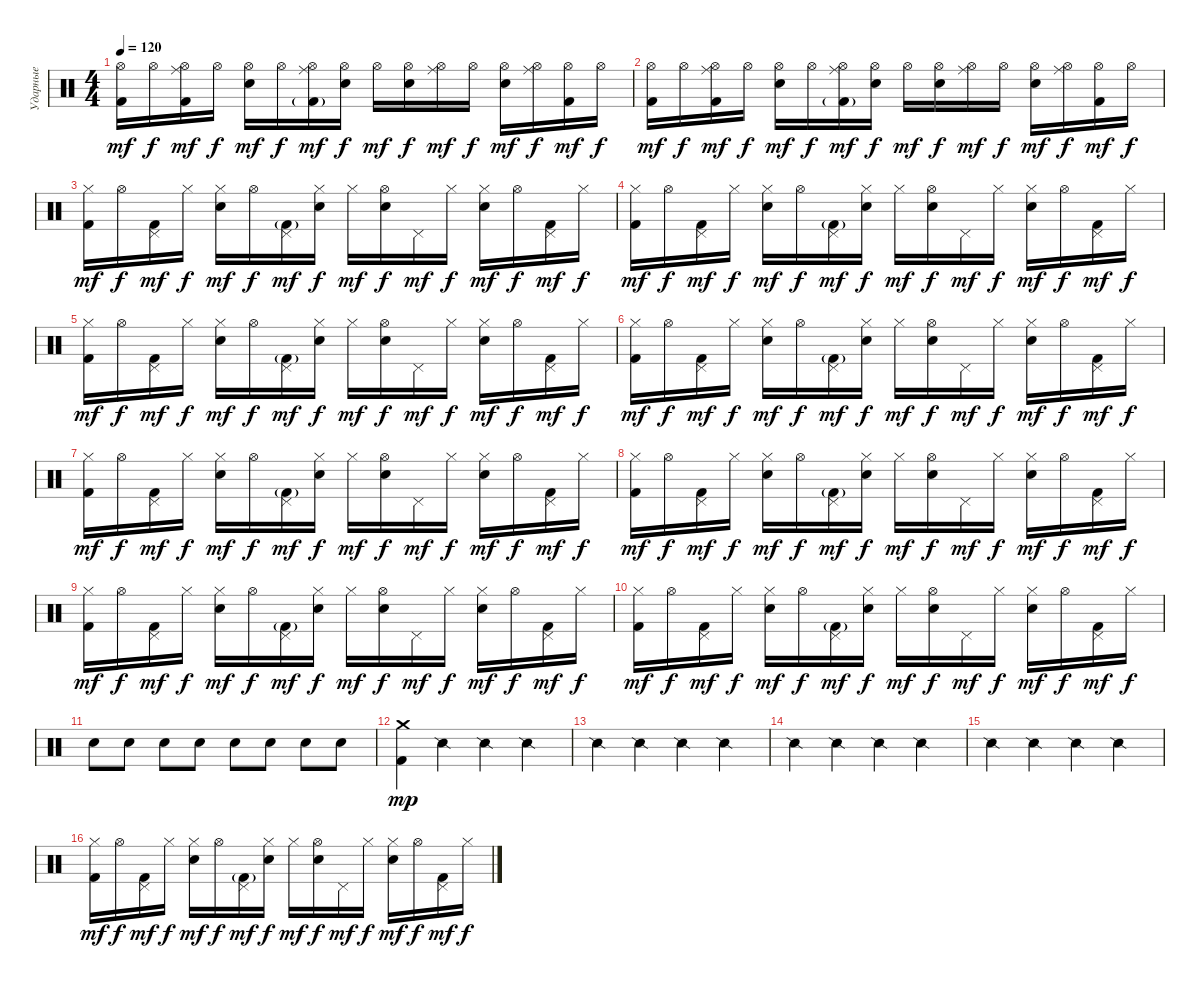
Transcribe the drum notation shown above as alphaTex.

\track ("Ударные" "Ударные") {instrument percussion}
\staff {score}
\articulation defaults
\ts (4 4)
\tempo 120
\clef neutral
\ks c
("Kick (hit) 2" "Hi-Hat (open)").16{dy mf} "Hi-Hat (open)".16{dy f} ("Kick (hit) 2" "Hi-Hat (open)" "Ride (middle)").16{dy mf} "Hi-Hat (open)".16{dy f} ("Snare (hit) 2" "Hi-Hat (open)").16{dy mf} "Hi-Hat (open)".16{dy f} ("Kick (hit) 2"{g} "Hi-Hat (open)" "Ride (middle)").16{dy mf} ("Snare (hit) 2" "Hi-Hat (open)").16{dy f} "Hi-Hat (open)".16{dy mf} ("Snare (hit) 2" "Hi-Hat (open)").16{dy f} ("Hi-Hat (open)" "Ride (middle)").16{dy mf} "Hi-Hat (open)".16{dy f} ("Snare (hit) 2" "Hi-Hat (open)").16{dy mf} ("Hi-Hat (open)" "Ride (middle)").16{dy f} ("Kick (hit) 2" "Hi-Hat (open)").16{dy mf} "Hi-Hat (open)".16{dy f} |
("Kick (hit) 2" "Hi-Hat (open)").16{dy mf} "Hi-Hat (open)".16{dy f} ("Kick (hit) 2" "Hi-Hat (open)" "Ride (middle)").16{dy mf} "Hi-Hat (open)".16{dy f} ("Snare (hit) 2" "Hi-Hat (open)").16{dy mf} "Hi-Hat (open)".16{dy f} ("Kick (hit) 2"{g} "Hi-Hat (open)" "Ride (middle)").16{dy mf} ("Snare (hit) 2" "Hi-Hat (open)").16{dy f} "Hi-Hat (open)".16{dy mf} ("Snare (hit) 2" "Hi-Hat (open)").16{dy f} ("Hi-Hat (open)" "Ride (middle)").16{dy mf} "Hi-Hat (open)".16{dy f} ("Snare (hit) 2" "Hi-Hat (open)").16{dy mf} ("Hi-Hat (open)" "Ride (middle)").16{dy f} ("Kick (hit) 2" "Hi-Hat (open)").16{dy mf} "Hi-Hat (open)".16{dy f} |
("Kick (hit) 2" "Hi-Hat (closed)").16{dy mf} "Hi-Hat (open)".16{dy f} ("Kick (hit) 2" "Pedal Hi-Hat (hit)").16{dy mf} "Hi-Hat (closed)".16{dy f} ("Snare (hit) 2" "Hi-Hat (closed)").16{dy mf} "Hi-Hat (open)".16{dy f} ("Kick (hit) 2"{g} "Pedal Hi-Hat (hit)").16{dy mf} ("Snare (hit) 2" "Hi-Hat (closed)").16{dy f} "Hi-Hat (closed)".16{dy mf} ("Snare (hit) 2" "Hi-Hat (open)").16{dy f} "Pedal Hi-Hat (hit)".16{dy mf} "Hi-Hat (closed)".16{dy f} ("Snare (hit) 2" "Hi-Hat (closed)").16{dy mf} "Hi-Hat (open)".16{dy f} ("Kick (hit) 2" "Pedal Hi-Hat (hit)").16{dy mf} "Hi-Hat (closed)".16{dy f} |
("Kick (hit) 2" "Hi-Hat (closed)").16{dy mf} "Hi-Hat (open)".16{dy f} ("Kick (hit) 2" "Pedal Hi-Hat (hit)").16{dy mf} "Hi-Hat (closed)".16{dy f} ("Snare (hit) 2" "Hi-Hat (closed)").16{dy mf} "Hi-Hat (open)".16{dy f} ("Kick (hit) 2"{g} "Pedal Hi-Hat (hit)").16{dy mf} ("Snare (hit) 2" "Hi-Hat (closed)").16{dy f} "Hi-Hat (closed)".16{dy mf} ("Snare (hit) 2" "Hi-Hat (open)").16{dy f} "Pedal Hi-Hat (hit)".16{dy mf} "Hi-Hat (closed)".16{dy f} ("Snare (hit) 2" "Hi-Hat (closed)").16{dy mf} "Hi-Hat (open)".16{dy f} ("Kick (hit) 2" "Pedal Hi-Hat (hit)").16{dy mf} "Hi-Hat (closed)".16{dy f} |
("Kick (hit) 2" "Hi-Hat (closed)").16{dy mf} "Hi-Hat (open)".16{dy f} ("Kick (hit) 2" "Pedal Hi-Hat (hit)").16{dy mf} "Hi-Hat (closed)".16{dy f} ("Snare (hit) 2" "Hi-Hat (closed)").16{dy mf} "Hi-Hat (open)".16{dy f} ("Kick (hit) 2"{g} "Pedal Hi-Hat (hit)").16{dy mf} ("Snare (hit) 2" "Hi-Hat (closed)").16{dy f} "Hi-Hat (closed)".16{dy mf} ("Snare (hit) 2" "Hi-Hat (open)").16{dy f} "Pedal Hi-Hat (hit)".16{dy mf} "Hi-Hat (closed)".16{dy f} ("Snare (hit) 2" "Hi-Hat (closed)").16{dy mf} "Hi-Hat (open)".16{dy f} ("Kick (hit) 2" "Pedal Hi-Hat (hit)").16{dy mf} "Hi-Hat (closed)".16{dy f} |
("Kick (hit) 2" "Hi-Hat (closed)").16{dy mf} "Hi-Hat (open)".16{dy f} ("Kick (hit) 2" "Pedal Hi-Hat (hit)").16{dy mf} "Hi-Hat (closed)".16{dy f} ("Snare (hit) 2" "Hi-Hat (closed)").16{dy mf} "Hi-Hat (open)".16{dy f} ("Kick (hit) 2"{g} "Pedal Hi-Hat (hit)").16{dy mf} ("Snare (hit) 2" "Hi-Hat (closed)").16{dy f} "Hi-Hat (closed)".16{dy mf} ("Snare (hit) 2" "Hi-Hat (open)").16{dy f} "Pedal Hi-Hat (hit)".16{dy mf} "Hi-Hat (closed)".16{dy f} ("Snare (hit) 2" "Hi-Hat (closed)").16{dy mf} "Hi-Hat (open)".16{dy f} ("Kick (hit) 2" "Pedal Hi-Hat (hit)").16{dy mf} "Hi-Hat (closed)".16{dy f} |
("Kick (hit) 2" "Hi-Hat (closed)").16{dy mf} "Hi-Hat (open)".16{dy f} ("Kick (hit) 2" "Pedal Hi-Hat (hit)").16{dy mf} "Hi-Hat (closed)".16{dy f} ("Snare (hit) 2" "Hi-Hat (closed)").16{dy mf} "Hi-Hat (open)".16{dy f} ("Kick (hit) 2"{g} "Pedal Hi-Hat (hit)").16{dy mf} ("Snare (hit) 2" "Hi-Hat (closed)").16{dy f} "Hi-Hat (closed)".16{dy mf} ("Snare (hit) 2" "Hi-Hat (open)").16{dy f} "Pedal Hi-Hat (hit)".16{dy mf} "Hi-Hat (closed)".16{dy f} ("Snare (hit) 2" "Hi-Hat (closed)").16{dy mf} "Hi-Hat (open)".16{dy f} ("Kick (hit) 2" "Pedal Hi-Hat (hit)").16{dy mf} "Hi-Hat (closed)".16{dy f} |
("Kick (hit) 2" "Hi-Hat (closed)").16{dy mf} "Hi-Hat (open)".16{dy f} ("Kick (hit) 2" "Pedal Hi-Hat (hit)").16{dy mf} "Hi-Hat (closed)".16{dy f} ("Snare (hit) 2" "Hi-Hat (closed)").16{dy mf} "Hi-Hat (open)".16{dy f} ("Kick (hit) 2"{g} "Pedal Hi-Hat (hit)").16{dy mf} ("Snare (hit) 2" "Hi-Hat (closed)").16{dy f} "Hi-Hat (closed)".16{dy mf} ("Snare (hit) 2" "Hi-Hat (open)").16{dy f} "Pedal Hi-Hat (hit)".16{dy mf} "Hi-Hat (closed)".16{dy f} ("Snare (hit) 2" "Hi-Hat (closed)").16{dy mf} "Hi-Hat (open)".16{dy f} ("Kick (hit) 2" "Pedal Hi-Hat (hit)").16{dy mf} "Hi-Hat (closed)".16{dy f} |
("Kick (hit) 2" "Hi-Hat (closed)").16{dy mf} "Hi-Hat (open)".16{dy f} ("Kick (hit) 2" "Pedal Hi-Hat (hit)").16{dy mf} "Hi-Hat (closed)".16{dy f} ("Snare (hit) 2" "Hi-Hat (closed)").16{dy mf} "Hi-Hat (open)".16{dy f} ("Kick (hit) 2"{g} "Pedal Hi-Hat (hit)").16{dy mf} ("Snare (hit) 2" "Hi-Hat (closed)").16{dy f} "Hi-Hat (closed)".16{dy mf} ("Snare (hit) 2" "Hi-Hat (open)").16{dy f} "Pedal Hi-Hat (hit)".16{dy mf} "Hi-Hat (closed)".16{dy f} ("Snare (hit) 2" "Hi-Hat (closed)").16{dy mf} "Hi-Hat (open)".16{dy f} ("Kick (hit) 2" "Pedal Hi-Hat (hit)").16{dy mf} "Hi-Hat (closed)".16{dy f} |
("Kick (hit) 2" "Hi-Hat (closed)").16{dy mf} "Hi-Hat (open)".16{dy f} ("Kick (hit) 2" "Pedal Hi-Hat (hit)").16{dy mf} "Hi-Hat (closed)".16{dy f} ("Snare (hit) 2" "Hi-Hat (closed)").16{dy mf} "Hi-Hat (open)".16{dy f} ("Kick (hit) 2"{g} "Pedal Hi-Hat (hit)").16{dy mf} ("Snare (hit) 2" "Hi-Hat (closed)").16{dy f} "Hi-Hat (closed)".16{dy mf} ("Snare (hit) 2" "Hi-Hat (open)").16{dy f} "Pedal Hi-Hat (hit)".16{dy mf} "Hi-Hat (closed)".16{dy f} ("Snare (hit) 2" "Hi-Hat (closed)").16{dy mf} "Hi-Hat (open)".16{dy f} ("Kick (hit) 2" "Pedal Hi-Hat (hit)").16{dy mf} "Hi-Hat (closed)".16{dy f} |
"Snare (hit) 2".8 "Snare (hit) 2".8 "Snare (hit) 2".8 "Snare (hit) 2".8 "Snare (hit) 2".8 "Snare (hit) 2".8 "Snare (hit) 2".8 "Snare (hit) 2".8 |
("Kick (hit) 2" "Crash medium (hit)").4{dy mp} "Snare (side stick) 2".4 "Snare (side stick) 2".4 "Snare (side stick) 2".4 |
"Snare (side stick) 2".4 "Snare (side stick) 2".4 "Snare (side stick) 2".4 "Snare (side stick) 2".4 |
"Snare (side stick) 2".4 "Snare (side stick) 2".4 "Snare (side stick) 2".4 "Snare (side stick) 2".4 |
"Snare (side stick) 2".4 "Snare (side stick) 2".4 "Snare (side stick) 2".4 "Snare (side stick) 2".4 |
("Kick (hit) 2" "Hi-Hat (closed)").16{dy mf} "Hi-Hat (open)".16{dy f} ("Kick (hit) 2" "Pedal Hi-Hat (hit)").16{dy mf} "Hi-Hat (closed)".16{dy f} ("Snare (hit) 2" "Hi-Hat (closed)").16{dy mf} "Hi-Hat (open)".16{dy f} ("Kick (hit) 2"{g} "Pedal Hi-Hat (hit)").16{dy mf} ("Snare (hit) 2" "Hi-Hat (closed)").16{dy f} "Hi-Hat (closed)".16{dy mf} ("Snare (hit) 2" "Hi-Hat (open)").16{dy f} "Pedal Hi-Hat (hit)".16{dy mf} "Hi-Hat (closed)".16{dy f} ("Snare (hit) 2" "Hi-Hat (closed)").16{dy mf} "Hi-Hat (open)".16{dy f} ("Kick (hit) 2" "Pedal Hi-Hat (hit)").16{dy mf} "Hi-Hat (closed)".16{dy f}
